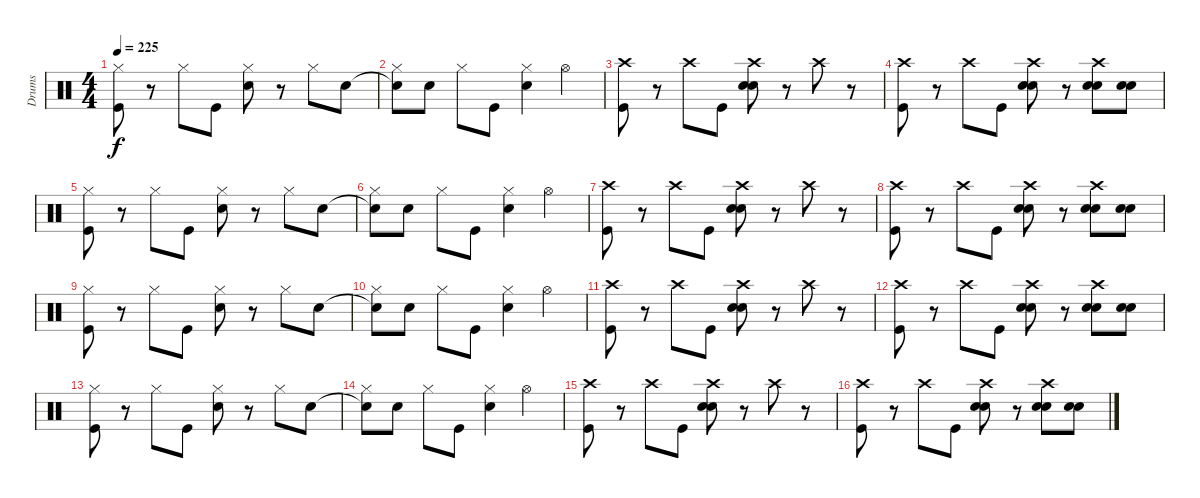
\track ("Drums" "Drums") {instrument percussion}
\staff {score}
\articulation defaults
\ts (4 4)
\tempo 225
\clef neutral
\ks c
("Kick (hit)" "Hi-Hat (closed)").8{dy f} r.8 "Hi-Hat (closed)".8 "Kick (hit)".8 ("Electric Snare (hit)" "Hi-Hat (closed)").8 r.8 "Hi-Hat (closed)".8 "Electric Snare (hit)".8 |
("Electric Snare (hit)"{t} "Hi-Hat (closed)").8 "Electric Snare (hit)".8 "Hi-Hat (closed)".8 "Kick (hit)".8 ("Electric Snare (hit)" "Hi-Hat (closed)").4 "Hi-Hat (open)".4 |
("Kick (hit)" "Crash high (hit)").8 r.8 "Crash high (hit)".8 "Kick (hit)".8 ("Electric Snare (hit)" "Electric Snare (hit)" "Crash high (hit)").8 r.8 "Crash high (hit)".8 r.8 |
("Kick (hit)" "Crash high (hit)").8 r.8 "Crash high (hit)".8 "Kick (hit)".8 ("Electric Snare (hit)" "Electric Snare (hit)" "Crash high (hit)").8 r.8 ("Electric Snare (hit)" "Electric Snare (hit)" "Crash high (hit)").8 ("Electric Snare (hit)" "Electric Snare (hit)").8 |
("Kick (hit)" "Hi-Hat (closed)").8 r.8 "Hi-Hat (closed)".8 "Kick (hit)".8 ("Electric Snare (hit)" "Hi-Hat (closed)").8 r.8 "Hi-Hat (closed)".8 "Electric Snare (hit)".8 |
("Electric Snare (hit)"{t} "Hi-Hat (closed)").8 "Electric Snare (hit)".8 "Hi-Hat (closed)".8 "Kick (hit)".8 ("Electric Snare (hit)" "Hi-Hat (closed)").4 "Hi-Hat (open)".4 |
("Kick (hit)" "Crash high (hit)").8 r.8 "Crash high (hit)".8 "Kick (hit)".8 ("Electric Snare (hit)" "Electric Snare (hit)" "Crash high (hit)").8 r.8 "Crash high (hit)".8 r.8 |
("Kick (hit)" "Crash high (hit)").8 r.8 "Crash high (hit)".8 "Kick (hit)".8 ("Electric Snare (hit)" "Electric Snare (hit)" "Crash high (hit)").8 r.8 ("Electric Snare (hit)" "Electric Snare (hit)" "Crash high (hit)").8 ("Electric Snare (hit)" "Electric Snare (hit)").8 |
("Kick (hit)" "Hi-Hat (closed)").8 r.8 "Hi-Hat (closed)".8 "Kick (hit)".8 ("Electric Snare (hit)" "Hi-Hat (closed)").8 r.8 "Hi-Hat (closed)".8 "Electric Snare (hit)".8 |
("Electric Snare (hit)"{t} "Hi-Hat (closed)").8 "Electric Snare (hit)".8 "Hi-Hat (closed)".8 "Kick (hit)".8 ("Electric Snare (hit)" "Hi-Hat (closed)").4 "Hi-Hat (open)".4 |
("Kick (hit)" "Crash high (hit)").8 r.8 "Crash high (hit)".8 "Kick (hit)".8 ("Electric Snare (hit)" "Electric Snare (hit)" "Crash high (hit)").8 r.8 "Crash high (hit)".8 r.8 |
("Kick (hit)" "Crash high (hit)").8 r.8 "Crash high (hit)".8 "Kick (hit)".8 ("Electric Snare (hit)" "Electric Snare (hit)" "Crash high (hit)").8 r.8 ("Electric Snare (hit)" "Electric Snare (hit)" "Crash high (hit)").8 ("Electric Snare (hit)" "Electric Snare (hit)").8 |
("Kick (hit)" "Hi-Hat (closed)").8 r.8 "Hi-Hat (closed)".8 "Kick (hit)".8 ("Electric Snare (hit)" "Hi-Hat (closed)").8 r.8 "Hi-Hat (closed)".8 "Electric Snare (hit)".8 |
("Electric Snare (hit)"{t} "Hi-Hat (closed)").8 "Electric Snare (hit)".8 "Hi-Hat (closed)".8 "Kick (hit)".8 ("Electric Snare (hit)" "Hi-Hat (closed)").4 "Hi-Hat (open)".4 |
("Kick (hit)" "Crash high (hit)").8 r.8 "Crash high (hit)".8 "Kick (hit)".8 ("Electric Snare (hit)" "Electric Snare (hit)" "Crash high (hit)").8 r.8 "Crash high (hit)".8 r.8 |
("Kick (hit)" "Crash high (hit)").8 r.8 "Crash high (hit)".8 "Kick (hit)".8 ("Electric Snare (hit)" "Electric Snare (hit)" "Crash high (hit)").8 r.8 ("Electric Snare (hit)" "Electric Snare (hit)" "Crash high (hit)").8 ("Electric Snare (hit)" "Electric Snare (hit)").8
